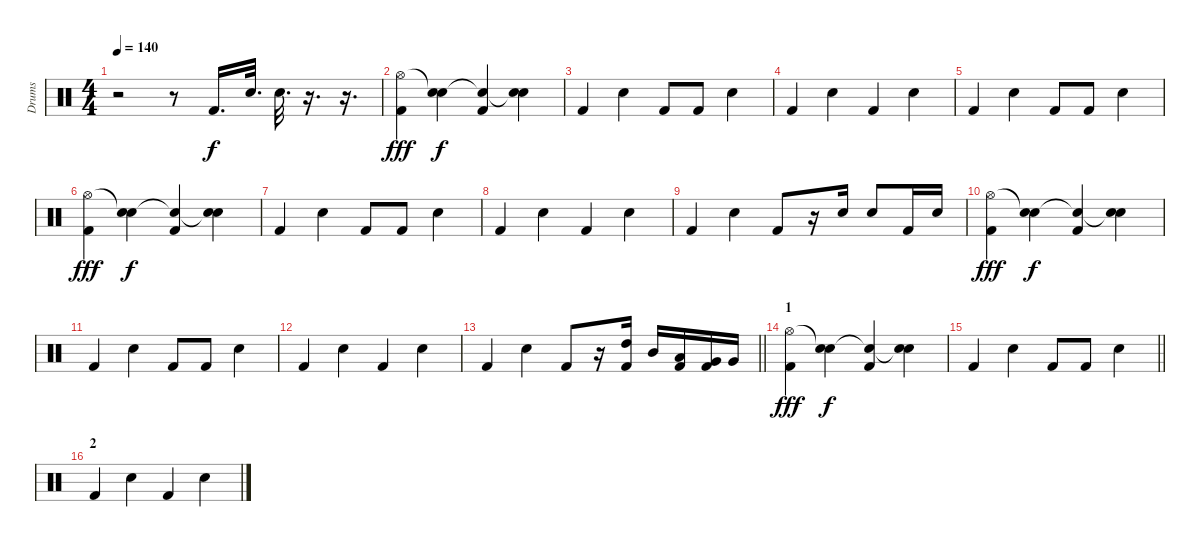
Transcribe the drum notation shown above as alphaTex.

\track ("Drums" "Drums") {instrument percussion}
\staff {score}
\articulation defaults
\ts (4 4)
\tempo 140
\clef neutral
\ks c
r.2{dy f} r.8 "Kick (hit) 2".16{d} "Snare (hit) 2".32{d} "Snare (hit) 2".32{d} r.16{d} r.16{d} |
("Hi-Hat (open)" "Kick (hit) 2").4{dy fff} ("Snare (hit)"{t} "Snare (hit) 2").4{dy f} ("Snare (hit)"{t} "Kick (hit) 2").4 ("Snare (hit)"{t} "Snare (hit) 2").4 |
"Kick (hit) 2".4 "Snare (hit) 2".4 "Kick (hit) 2".8 "Kick (hit) 2".8 "Snare (hit) 2".4 |
"Kick (hit) 2".4 "Snare (hit) 2".4 "Kick (hit) 2".4 "Snare (hit) 2".4 |
"Kick (hit) 2".4 "Snare (hit) 2".4 "Kick (hit) 2".8 "Kick (hit) 2".8 "Snare (hit) 2".4 |
("Hi-Hat (open)" "Kick (hit) 2").4{dy fff} ("Snare (hit)"{t} "Snare (hit) 2").4{dy f} ("Snare (hit)"{t} "Kick (hit) 2").4 ("Snare (hit)"{t} "Snare (hit) 2").4 |
"Kick (hit) 2".4 "Snare (hit) 2".4 "Kick (hit) 2".8 "Kick (hit) 2".8 "Snare (hit) 2".4 |
"Kick (hit) 2".4 "Snare (hit) 2".4 "Kick (hit) 2".4 "Snare (hit) 2".4 |
"Kick (hit) 2".4 "Snare (hit) 2".4 "Kick (hit) 2".8 r.16 "Snare (hit) 2".16 "Snare (hit) 2".8 "Kick (hit) 2".16 "Snare (hit) 2".16 |
("Hi-Hat (open)" "Kick (hit) 2").4{dy fff} ("Snare (hit)"{t} "Snare (hit) 2").4{dy f} ("Snare (hit)"{t} "Kick (hit) 2").4 ("Snare (hit)"{t} "Snare (hit) 2").4 |
"Kick (hit) 2".4 "Snare (hit) 2".4 "Kick (hit) 2".8 "Kick (hit) 2".8 "Snare (hit) 2".4 |
"Kick (hit) 2".4 "Snare (hit) 2".4 "Kick (hit) 2".4 "Snare (hit) 2".4 |
\barLineRight lightlight "Kick (hit) 2".4 "Snare (hit) 2".4 "Kick (hit) 2".8
r.16 ("High Tom (hit)" "Kick (hit) 2").16 "Mid Tom (hit)".16 ("Low Tom (hit)" "Kick (hit) 2").16 ("Very Low Tom (hit)" "Kick (hit) 2").16 "Very Low Tom (hit)".16 |
\section ("" "1")
("Hi-Hat (open)" "Kick (hit) 2").4{dy fff} ("Snare (hit)"{t} "Snare (hit) 2").4{dy f} ("Snare (hit)"{t} "Kick (hit) 2").4 ("Snare (hit)"{t} "Snare (hit) 2").4 |
\barLineRight lightlight "Kick (hit) 2".4 "Snare (hit) 2".4 "Kick (hit) 2".8 "Kick (hit) 2".8 "Snare (hit) 2".4
|
\section ("" "2")
"Kick (hit) 2".4 "Snare (hit) 2".4 "Kick (hit) 2".4 "Snare (hit) 2".4
